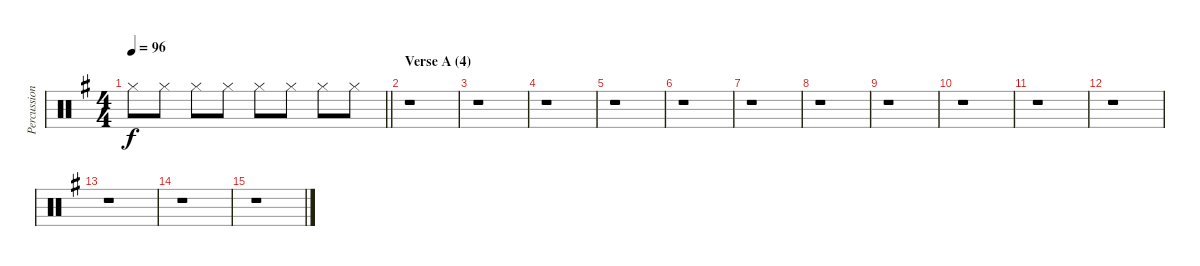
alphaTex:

\track ("Percussion" "Percussion") {instrument percussion}
\staff {score}
\articulation defaults
\ts (4 4)
\tempo 96
\clef neutral
\barLineRight lightlight
\ks eminor "Hi-Hat (closed)".8{dy f} "Hi-Hat (closed)".8 "Hi-Hat (closed)".8 "Hi-Hat (closed)".8 "Hi-Hat (closed)".8 "Hi-Hat (closed)".8 "Hi-Hat (closed)".8 "Hi-Hat (closed)".8
|
\section ("" "Verse A (4)")
r.1 |
r.1 |
r.1 |
r.1 |
r.1 |
r.1 |
r.1 |
r.1 |
r.1 |
r.1 |
r.1 |
r.1 |
r.1 |
r.1
